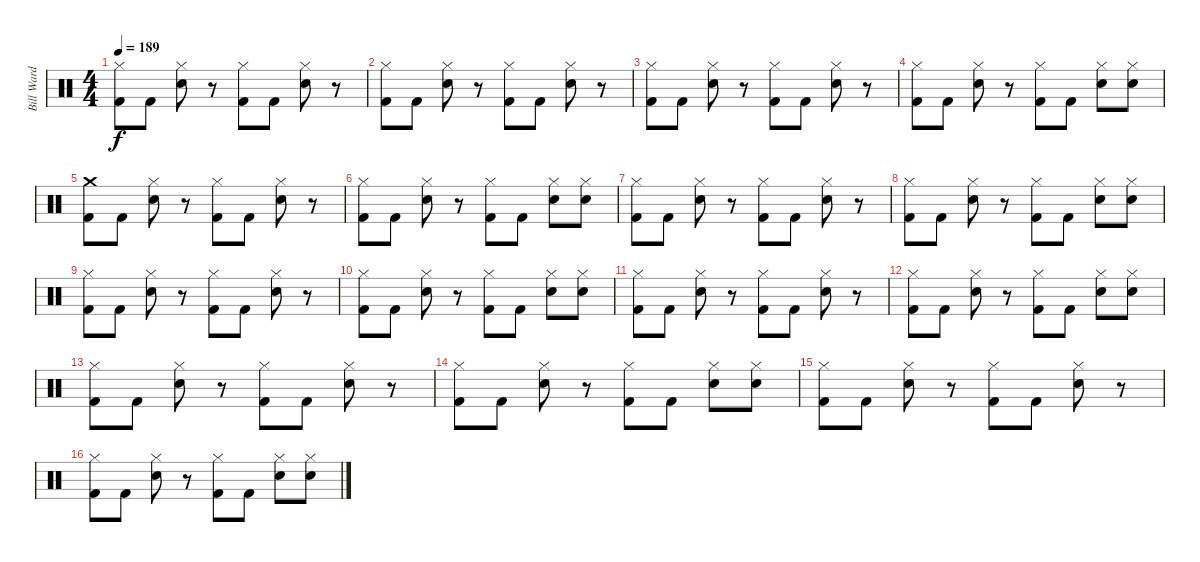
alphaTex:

\track ("Bill Ward" "Bill Ward") {instrument percussion}
\staff {score}
\articulation defaults
\ts (4 4)
\tempo 189
\clef neutral
\ks c
("Hi-Hat (closed)" "Kick (hit) 2").8{dy f} "Kick (hit) 2".8 ("Hi-Hat (closed)" "Electric Snare (hit)").8 r.8 ("Kick (hit) 2" "Hi-Hat (closed)").8 "Kick (hit) 2".8 ("Hi-Hat (closed)" "Electric Snare (hit)").8 r.8 |
("Hi-Hat (closed)" "Kick (hit) 2").8 "Kick (hit) 2".8 ("Electric Snare (hit)" "Hi-Hat (closed)").8 r.8 ("Kick (hit) 2" "Hi-Hat (closed)").8 "Kick (hit) 2".8 ("Electric Snare (hit)" "Hi-Hat (closed)").8 r.8 |
("Kick (hit) 2" "Hi-Hat (closed)").8 "Kick (hit) 2".8 ("Hi-Hat (closed)" "Electric Snare (hit)").8 r.8 ("Kick (hit) 2" "Hi-Hat (closed)").8 "Kick (hit) 2".8 ("Hi-Hat (closed)" "Electric Snare (hit)").8 r.8 |
("Hi-Hat (closed)" "Kick (hit) 2").8 "Kick (hit) 2".8 ("Hi-Hat (closed)" "Electric Snare (hit)").8 r.8 ("Hi-Hat (closed)" "Kick (hit) 2").8 "Kick (hit) 2".8 ("Electric Snare (hit)" "Hi-Hat (closed)").8 ("Hi-Hat (closed)" "Electric Snare (hit)").8 |
("Kick (hit) 2" "Crash medium (hit)").8 "Kick (hit) 2".8 ("Hi-Hat (closed)" "Electric Snare (hit)").8 r.8 ("Kick (hit) 2" "Hi-Hat (closed)").8 "Kick (hit) 2".8 ("Electric Snare (hit)" "Hi-Hat (closed)").8 r.8 |
("Kick (hit) 2" "Hi-Hat (closed)").8 "Kick (hit) 2".8 ("Hi-Hat (closed)" "Electric Snare (hit)").8 r.8 ("Hi-Hat (closed)" "Kick (hit) 2").8 "Kick (hit) 2".8 ("Hi-Hat (closed)" "Electric Snare (hit)").8 ("Hi-Hat (closed)" "Electric Snare (hit)").8 |
("Hi-Hat (closed)" "Kick (hit) 2").8 "Kick (hit) 2".8 ("Hi-Hat (closed)" "Electric Snare (hit)").8 r.8 ("Hi-Hat (closed)" "Kick (hit) 2").8 "Kick (hit) 2".8 ("Hi-Hat (closed)" "Electric Snare (hit)").8 r.8 |
("Hi-Hat (closed)" "Kick (hit) 2").8 "Kick (hit) 2".8 ("Hi-Hat (closed)" "Electric Snare (hit)").8 r.8 ("Kick (hit) 2" "Hi-Hat (closed)").8 "Kick (hit) 2".8 ("Hi-Hat (closed)" "Electric Snare (hit)").8 ("Electric Snare (hit)" "Hi-Hat (closed)").8 |
("Hi-Hat (closed)" "Kick (hit) 2").8 "Kick (hit) 2".8 ("Hi-Hat (closed)" "Electric Snare (hit)").8 r.8 ("Kick (hit) 2" "Hi-Hat (closed)").8 "Kick (hit) 2".8 ("Hi-Hat (closed)" "Electric Snare (hit)").8 r.8 |
("Hi-Hat (closed)" "Kick (hit) 2").8 "Kick (hit) 2".8 ("Hi-Hat (closed)" "Electric Snare (hit)").8 r.8 ("Kick (hit) 2" "Hi-Hat (closed)").8 "Kick (hit) 2".8 ("Hi-Hat (closed)" "Electric Snare (hit)").8 ("Hi-Hat (closed)" "Electric Snare (hit)").8 |
("Hi-Hat (closed)" "Kick (hit) 2").8 "Kick (hit) 2".8 ("Hi-Hat (closed)" "Electric Snare (hit)").8 r.8 ("Hi-Hat (closed)" "Kick (hit) 2").8 "Kick (hit) 2".8 ("Electric Snare (hit)" "Hi-Hat (closed)").8 r.8 |
("Kick (hit) 2" "Hi-Hat (closed)").8 "Kick (hit) 2".8 ("Electric Snare (hit)" "Hi-Hat (closed)").8 r.8 ("Kick (hit) 2" "Hi-Hat (closed)").8 "Kick (hit) 2".8 ("Hi-Hat (closed)" "Electric Snare (hit)").8 ("Electric Snare (hit)" "Hi-Hat (closed)").8 |
("Hi-Hat (closed)" "Kick (hit) 2").8 "Kick (hit) 2".8 ("Hi-Hat (closed)" "Electric Snare (hit)").8 r.8 ("Kick (hit) 2" "Hi-Hat (closed)").8 "Kick (hit) 2".8 ("Electric Snare (hit)" "Hi-Hat (closed)").8 r.8 |
("Hi-Hat (closed)" "Kick (hit) 2").8 "Kick (hit) 2".8 ("Hi-Hat (closed)" "Electric Snare (hit)").8 r.8 ("Hi-Hat (closed)" "Kick (hit) 2").8 "Kick (hit) 2".8 ("Hi-Hat (closed)" "Electric Snare (hit)").8 ("Electric Snare (hit)" "Hi-Hat (closed)").8 |
("Kick (hit) 2" "Hi-Hat (closed)").8 "Kick (hit) 2".8 ("Hi-Hat (closed)" "Electric Snare (hit)").8 r.8 ("Hi-Hat (closed)" "Kick (hit) 2").8 "Kick (hit) 2".8 ("Electric Snare (hit)" "Hi-Hat (closed)").8 r.8 |
("Hi-Hat (closed)" "Kick (hit) 2").8 "Kick (hit) 2".8 ("Hi-Hat (closed)" "Electric Snare (hit)").8 r.8 ("Kick (hit) 2" "Hi-Hat (closed)").8 "Kick (hit) 2".8 ("Electric Snare (hit)" "Hi-Hat (closed)").8 ("Electric Snare (hit)" "Hi-Hat (closed)").8
